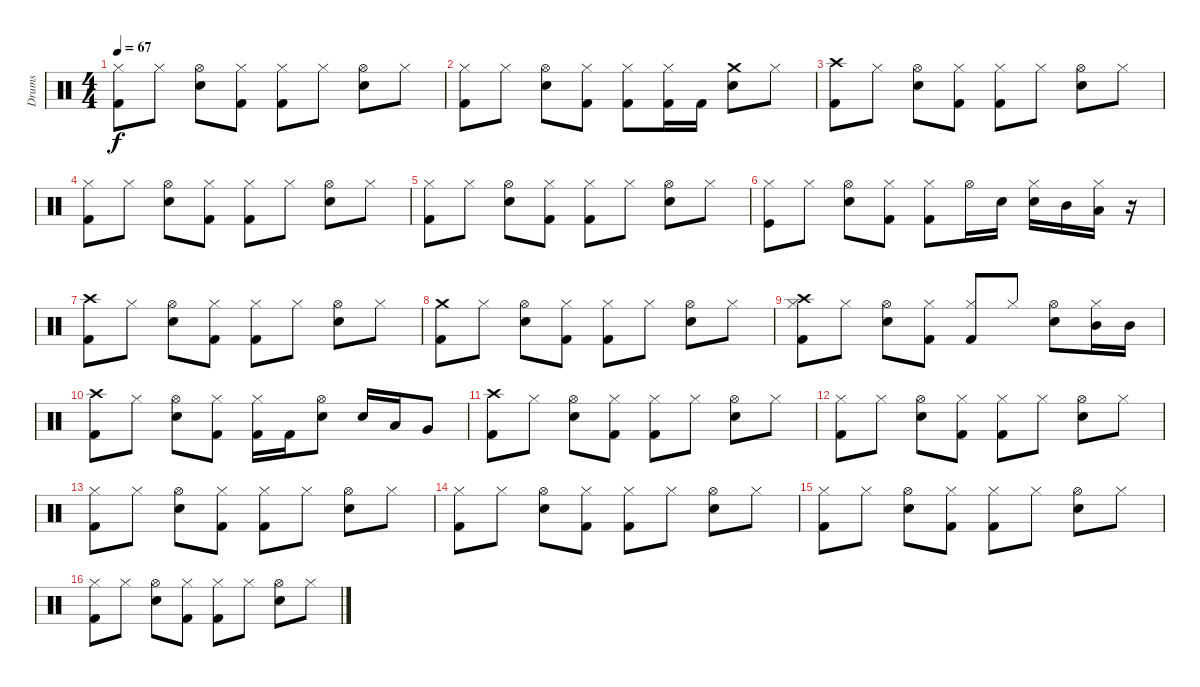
\track ("Drums" "Drums") {instrument percussion}
\staff {score}
\articulation defaults
\ts (4 4)
\tempo 67
\clef neutral
\ks c
("Kick (hit) 2" "Hi-Hat (closed)").8{dy f} "Hi-Hat (closed)".8 ("Electric Snare (hit)" "Hi-Hat (open)").8 ("Kick (hit) 2" "Hi-Hat (closed)").8 ("Kick (hit) 2" "Hi-Hat (closed)").8 "Hi-Hat (closed)".8 ("Electric Snare (hit)" "Hi-Hat (open)").8 "Hi-Hat (closed)".8 |
("Kick (hit) 2" "Hi-Hat (closed)").8 "Hi-Hat (closed)".8 ("Electric Snare (hit)" "Hi-Hat (open)").8 ("Kick (hit) 2" "Hi-Hat (closed)").8 ("Kick (hit) 2" "Hi-Hat (closed)").8 ("Kick (hit) 2" "Hi-Hat (closed)").16 "Kick (hit) 2".16 ("Electric Snare (hit)" "Crash medium (hit)").8 "Hi-Hat (closed)".8 |
("Kick (hit) 2" "Crash high (hit)").8 "Hi-Hat (closed)".8 ("Electric Snare (hit)" "Hi-Hat (open)").8 ("Kick (hit) 2" "Hi-Hat (closed)").8 ("Kick (hit) 2" "Hi-Hat (closed)").8 "Hi-Hat (closed)".8 ("Electric Snare (hit)" "Hi-Hat (open)").8 "Hi-Hat (closed)".8 |
("Kick (hit) 2" "Hi-Hat (closed)").8 "Hi-Hat (closed)".8 ("Electric Snare (hit)" "Hi-Hat (open)").8 ("Kick (hit) 2" "Hi-Hat (closed)").8 ("Kick (hit) 2" "Hi-Hat (closed)").8 "Hi-Hat (closed)".8 ("Electric Snare (hit)" "Hi-Hat (open)").8 "Hi-Hat (closed)".8 |
("Kick (hit) 2" "Hi-Hat (closed)").8 "Hi-Hat (closed)".8 ("Electric Snare (hit)" "Hi-Hat (open)").8 ("Kick (hit) 2" "Hi-Hat (closed)").8 ("Kick (hit) 2" "Hi-Hat (closed)").8 "Hi-Hat (closed)".8 ("Electric Snare (hit)" "Hi-Hat (open)").8 "Hi-Hat (closed)".8 |
("Kick (hit)" "Hi-Hat (closed)").8 "Hi-Hat (closed)".8 ("Electric Snare (hit)" "Hi-Hat (open)").8 ("Kick (hit) 2" "Hi-Hat (closed)").8 ("Kick (hit) 2" "Hi-Hat (closed)").8 "Hi-Hat (open)".16 "Electric Snare (hit)".16 ("Electric Snare (hit)" "Hi-Hat (closed)").16 "Mid Tom (hit)".16 ("Low Tom (hit)" "Hi-Hat (closed)").16 r.16 |
("Kick (hit) 2" "Crash high (hit)").8 "Hi-Hat (closed)".8 ("Electric Snare (hit)" "Hi-Hat (open)").8 ("Kick (hit) 2" "Hi-Hat (closed)").8 ("Kick (hit) 2" "Hi-Hat (closed)").8 "Hi-Hat (closed)".8 ("Electric Snare (hit)" "Hi-Hat (open)").8 "Hi-Hat (closed)".8 |
("Kick (hit) 2" "Crash medium (hit)").8 "Hi-Hat (closed)".8 ("Electric Snare (hit)" "Hi-Hat (open)").8 ("Kick (hit) 2" "Hi-Hat (closed)").8 ("Kick (hit) 2" "Hi-Hat (closed)").8 "Hi-Hat (closed)".8 ("Electric Snare (hit)" "Hi-Hat (open)").8 "Hi-Hat (closed)".8 |
("Kick (hit) 2" "Hi-Hat (closed)" "Crash high (hit)").8 "Hi-Hat (closed)".8 ("Electric Snare (hit)" "Hi-Hat (open)").8 ("Kick (hit) 2" "Hi-Hat (closed)").8 ("Kick (hit) 2" "Hi-Hat (closed)").8{beam Up} "Hi-Hat (closed)".8{beam Up} ("Electric Snare (hit)" "Hi-Hat (open)").8 ("Mid Tom (hit)" "Hi-Hat (closed)").16 "Mid Tom (hit)".16 |
("Kick (hit) 2" "Crash high (hit)").8 "Hi-Hat (closed)".8 ("Electric Snare (hit)" "Hi-Hat (open)").8 ("Kick (hit) 2" "Hi-Hat (closed)").8 ("Kick (hit) 2" "Hi-Hat (closed)").16 "Kick (hit) 2".16 ("Electric Snare (hit)" "Hi-Hat (open)").8 "Electric Snare (hit)".16 "Low Tom (hit)".16 "Very Low Tom (hit)".8 |
("Kick (hit) 2" "Crash high (hit)").8 "Hi-Hat (closed)".8 ("Electric Snare (hit)" "Hi-Hat (open)").8 ("Kick (hit) 2" "Hi-Hat (closed)").8 ("Kick (hit) 2" "Hi-Hat (closed)").8 "Hi-Hat (closed)".8 ("Electric Snare (hit)" "Hi-Hat (open)").8 "Hi-Hat (closed)".8 |
("Kick (hit) 2" "Hi-Hat (closed)").8 "Hi-Hat (closed)".8 ("Electric Snare (hit)" "Hi-Hat (open)").8 ("Kick (hit) 2" "Hi-Hat (closed)").8 ("Kick (hit) 2" "Hi-Hat (closed)").8 "Hi-Hat (closed)".8 ("Electric Snare (hit)" "Hi-Hat (open)").8 "Hi-Hat (closed)".8 |
("Kick (hit) 2" "Hi-Hat (closed)").8 "Hi-Hat (closed)".8 ("Electric Snare (hit)" "Hi-Hat (open)").8 ("Kick (hit) 2" "Hi-Hat (closed)").8 ("Kick (hit) 2" "Hi-Hat (closed)").8 "Hi-Hat (closed)".8 ("Electric Snare (hit)" "Hi-Hat (open)").8 "Hi-Hat (closed)".8 |
("Kick (hit) 2" "Hi-Hat (closed)").8 "Hi-Hat (closed)".8 ("Electric Snare (hit)" "Hi-Hat (open)").8 ("Kick (hit) 2" "Hi-Hat (closed)").8 ("Kick (hit) 2" "Hi-Hat (closed)").8 "Hi-Hat (closed)".8 ("Electric Snare (hit)" "Hi-Hat (open)").8 "Hi-Hat (closed)".8 |
("Kick (hit) 2" "Hi-Hat (closed)").8 "Hi-Hat (closed)".8 ("Electric Snare (hit)" "Hi-Hat (open)").8 ("Kick (hit) 2" "Hi-Hat (closed)").8 ("Kick (hit) 2" "Hi-Hat (closed)").8 "Hi-Hat (closed)".8 ("Electric Snare (hit)" "Hi-Hat (open)").8 "Hi-Hat (closed)".8 |
("Kick (hit) 2" "Hi-Hat (closed)").8 "Hi-Hat (closed)".8 ("Electric Snare (hit)" "Hi-Hat (open)").8 ("Kick (hit) 2" "Hi-Hat (closed)").8 ("Kick (hit) 2" "Hi-Hat (closed)").8 "Hi-Hat (closed)".8 ("Electric Snare (hit)" "Hi-Hat (open)").8 "Hi-Hat (closed)".8
